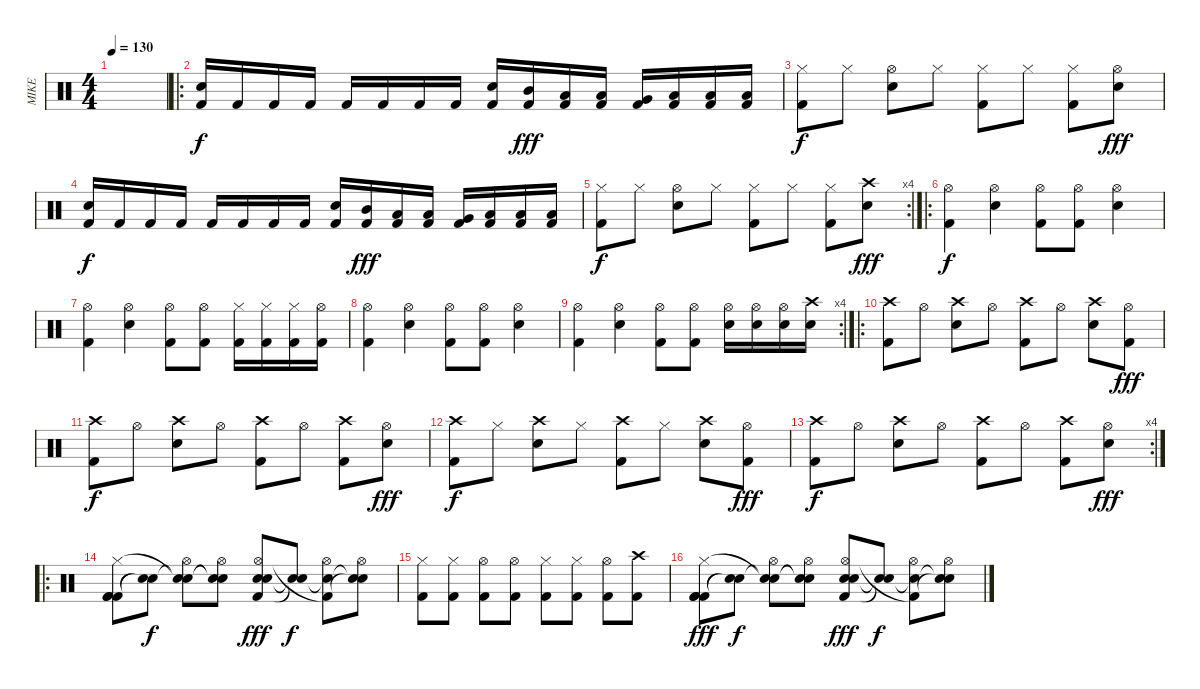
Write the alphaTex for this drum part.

\track ("MIKE" "MIKE") {instrument percussion}
\staff {score}
\articulation defaults
\ts (4 4)
\tempo 130
\clef neutral
\ks c
|
\ro
("Snare (hit) 2" "Kick (hit) 2").16{dy f} "Kick (hit) 2".16 "Kick (hit) 2".16 "Kick (hit) 2".16 "Kick (hit) 2".16 "Kick (hit) 2".16 "Kick (hit) 2".16 "Kick (hit) 2".16 ("Snare (hit) 2" "Kick (hit) 2").16 ("Mid Tom (hit)" "Kick (hit) 2").16{dy fff} ("Low Tom (hit)" "Kick (hit) 2").16 ("Low Tom (hit)" "Kick (hit) 2").16 ("Very Low Tom (hit)" "Kick (hit) 2").16 ("Low Floor Tom (hit)" "Kick (hit) 2").16 ("Low Floor Tom (hit)" "Kick (hit) 2").16 ("Low Floor Tom (hit)" "Kick (hit) 2").16 |
("Hi-Hat (closed)" "Kick (hit) 2").8{dy f} "Hi-Hat (closed)".8 ("Hi-Hat (open)" "Snare (hit) 2").8 "Hi-Hat (closed)".8 ("Hi-Hat (closed)" "Kick (hit) 2").8 "Hi-Hat (closed)".8 ("Hi-Hat (closed)" "Kick (hit) 2").8 ("Hi-Hat (open)" "Snare (hit) 2").8{dy fff} |
("Snare (hit) 2" "Kick (hit) 2").16{dy f} "Kick (hit) 2".16 "Kick (hit) 2".16 "Kick (hit) 2".16 "Kick (hit) 2".16 "Kick (hit) 2".16 "Kick (hit) 2".16 "Kick (hit) 2".16 ("Snare (hit) 2" "Kick (hit) 2").16 ("Mid Tom (hit)" "Kick (hit) 2").16{dy fff} ("Low Tom (hit)" "Kick (hit) 2").16 ("Low Tom (hit)" "Kick (hit) 2").16 ("Very Low Tom (hit)" "Kick (hit) 2").16 ("Low Floor Tom (hit)" "Kick (hit) 2").16 ("Low Floor Tom (hit)" "Kick (hit) 2").16 ("Low Floor Tom (hit)" "Kick (hit) 2").16 |
\rc 4
("Hi-Hat (closed)" "Kick (hit) 2").8{dy f} "Hi-Hat (closed)".8 ("Hi-Hat (open)" "Snare (hit) 2").8 "Hi-Hat (closed)".8 ("Hi-Hat (closed)" "Kick (hit) 2").8 "Hi-Hat (closed)".8 ("Hi-Hat (closed)" "Kick (hit) 2").8 ("Crash high (hit)" "Snare (hit) 2").8{dy fff} |
\ro
("Hi-Hat (open)" "Kick (hit) 2").4{dy f} ("Hi-Hat (open)" "Electric Snare (hit)").4 ("Hi-Hat (open)" "Kick (hit) 2").8 ("Hi-Hat (open)" "Kick (hit) 2").8 ("Hi-Hat (open)" "Electric Snare (hit)").4 |
("Hi-Hat (open)" "Kick (hit) 2").4 ("Hi-Hat (open)" "Electric Snare (hit)").4 ("Hi-Hat (open)" "Kick (hit) 2").8 ("Hi-Hat (open)" "Kick (hit) 2").8 ("Hi-Hat (closed)" "Kick (hit) 2").16 ("Hi-Hat (closed)" "Kick (hit) 2").16 ("Hi-Hat (closed)" "Kick (hit) 2").16 ("Hi-Hat (open)" "Kick (hit) 2").16 |
("Hi-Hat (open)" "Kick (hit) 2").4 ("Hi-Hat (open)" "Electric Snare (hit)").4 ("Hi-Hat (open)" "Kick (hit) 2").8 ("Hi-Hat (open)" "Kick (hit) 2").8 ("Hi-Hat (open)" "Electric Snare (hit)").4 |
\rc 4
("Hi-Hat (open)" "Kick (hit) 2").4 ("Hi-Hat (open)" "Electric Snare (hit)").4 ("Hi-Hat (open)" "Kick (hit) 2").8 ("Hi-Hat (open)" "Kick (hit) 2").8 ("Hi-Hat (open)" "Electric Snare (hit)").16 ("Hi-Hat (open)" "Electric Snare (hit)").16 ("Hi-Hat (open)" "Electric Snare (hit)").16 ("Crash high (hit)" "Electric Snare (hit)").16 |
\ro
("Crash high (hit)" "Kick (hit) 2").8 "Hi-Hat (open)".8 ("Crash high (hit)" "Snare (hit) 2").8 "Hi-Hat (open)".8 ("Crash high (hit)" "Kick (hit) 2").8 "Hi-Hat (open)".8 ("Crash high (hit)" "Snare (hit) 2").8 ("Hi-Hat (open)" "Kick (hit) 2").8{dy fff} |
("Crash high (hit)" "Kick (hit) 2").8{dy f} "Hi-Hat (open)".8 ("Crash high (hit)" "Snare (hit) 2").8 "Hi-Hat (open)".8 ("Crash high (hit)" "Kick (hit) 2").8 "Hi-Hat (open)".8 ("Crash high (hit)" "Kick (hit) 2").8 ("Hi-Hat (open)" "Snare (hit) 2").8{dy fff} |
("Crash high (hit)" "Kick (hit) 2").8{dy f} "Hi-Hat (closed)".8 ("Crash high (hit)" "Snare (hit) 2").8 "Hi-Hat (closed)".8 ("Crash high (hit)" "Kick (hit) 2").8 "Hi-Hat (closed)".8 ("Crash high (hit)" "Snare (hit) 2").8 ("Hi-Hat (open)" "Kick (hit) 2").8{dy fff} |
\rc 4
("Crash high (hit)" "Kick (hit) 2").8{dy f} "Hi-Hat (open)".8 ("Crash high (hit)" "Snare (hit) 2").8 "Hi-Hat (open)".8 ("Crash high (hit)" "Kick (hit) 2").8 "Hi-Hat (open)".8 ("Crash high (hit)" "Kick (hit) 2").8 ("Hi-Hat (open)" "Snare (hit) 2").8{dy fff} |
\ro
("Kick (hit) 2" "Kick (hit) 2" "Hi-Hat (closed)" "Kick (hit) 2").8 ("Snare (hit)"{t} "Snare (hit)"{t}).8{dy f} ("Hi-Hat (open)" "Snare (hit)"{t} "Snare (hit)"{t}).8 ("Hi-Hat (open)" "Snare (hit)"{t} "Electric Snare (hit)"{t}).8 ("Kick (hit) 2" "Electric Snare (hit)" "Hi-Hat (open)" "Electric Snare (hit)").8{dy fff} ("Snare (hit)"{t} "Snare (hit)"{t}).8{dy f} ("Hi-Hat (open)" "Snare (hit)"{t} "Kick (hit) 2"{t}).8 ("Hi-Hat (open)" "Snare (hit)"{t} "Snare (hit)"{t}).8 |
("Hi-Hat (closed)" "Kick (hit) 2").8 ("Hi-Hat (closed)" "Kick (hit) 2").8 ("Hi-Hat (open)" "Kick (hit) 2").8 ("Hi-Hat (open)" "Kick (hit) 2").8 ("Hi-Hat (closed)" "Kick (hit) 2").8 ("Hi-Hat (closed)" "Kick (hit) 2").8 ("Hi-Hat (open)" "Kick (hit) 2").8 ("Crash high (hit)" "Kick (hit) 2").8 |
("Kick (hit) 2" "Kick (hit) 2" "Hi-Hat (closed)" "Kick (hit) 2").8{dy fff} ("Snare (hit)"{t} "Snare (hit)"{t}).8{dy f} ("Hi-Hat (open)" "Snare (hit)"{t} "Snare (hit)"{t}).8 ("Hi-Hat (open)" "Snare (hit)"{t} "Electric Snare (hit)"{t}).8 ("Kick (hit) 2" "Electric Snare (hit)" "Hi-Hat (open)" "Electric Snare (hit)").8{dy fff} ("Snare (hit)"{t} "Snare (hit)"{t}).8{dy f} ("Hi-Hat (open)" "Snare (hit)"{t} "Kick (hit) 2"{t}).8 ("Hi-Hat (open)" "Snare (hit)"{t} "Snare (hit)"{t}).8
